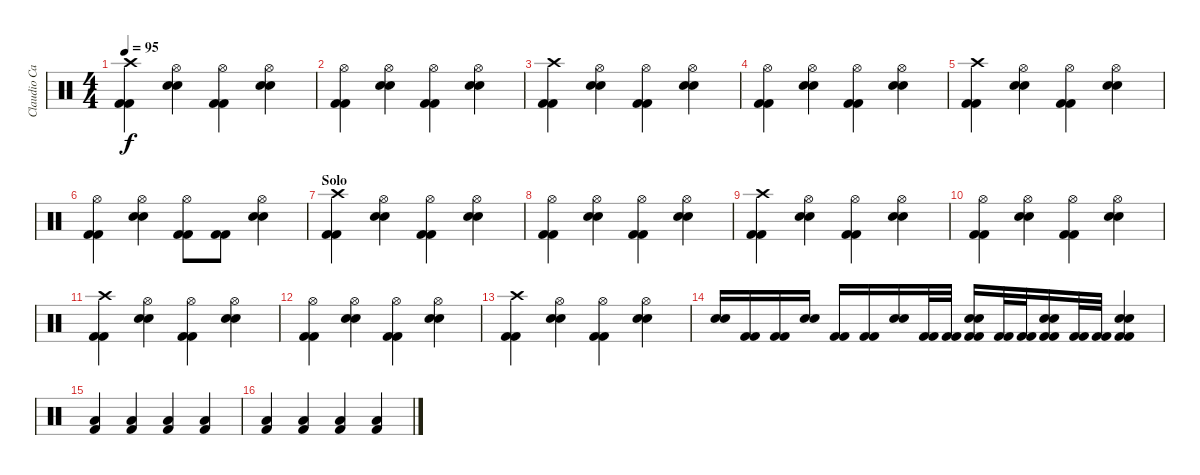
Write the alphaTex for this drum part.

\track ("Claudio Cardaci (bateria)" "Claudio Ca") {instrument percussion}
\staff {score}
\articulation defaults
\ts (4 4)
\tempo 95
\clef neutral
\ks c
("Crash high (hit)" "Kick (hit) 2" "Kick (hit) 2").4{dy f} ("Hi-Hat (open)" "Snare (hit) 2" "Snare (hit) 2").4 ("Hi-Hat (open)" "Kick (hit) 2" "Kick (hit) 2").4 ("Hi-Hat (open)" "Snare (hit) 2" "Snare (hit) 2").4 |
("Hi-Hat (open)" "Kick (hit) 2" "Kick (hit) 2").4 ("Hi-Hat (open)" "Snare (hit) 2" "Snare (hit) 2").4 ("Hi-Hat (open)" "Kick (hit) 2" "Kick (hit) 2").4 ("Hi-Hat (open)" "Snare (hit) 2" "Snare (hit) 2").4 |
("Crash high (hit)" "Kick (hit) 2" "Kick (hit) 2").4 ("Hi-Hat (open)" "Snare (hit) 2" "Snare (hit) 2").4 ("Hi-Hat (open)" "Kick (hit) 2" "Kick (hit) 2").4 ("Hi-Hat (open)" "Snare (hit) 2" "Snare (hit) 2").4 |
("Hi-Hat (open)" "Kick (hit) 2" "Kick (hit) 2").4 ("Hi-Hat (open)" "Snare (hit) 2" "Snare (hit) 2").4 ("Hi-Hat (open)" "Kick (hit) 2" "Kick (hit) 2").4 ("Hi-Hat (open)" "Snare (hit) 2" "Snare (hit) 2").4 |
("Crash high (hit)" "Kick (hit) 2" "Kick (hit) 2").4 ("Hi-Hat (open)" "Snare (hit) 2" "Snare (hit) 2").4 ("Hi-Hat (open)" "Kick (hit) 2" "Kick (hit) 2").4 ("Hi-Hat (open)" "Snare (hit) 2" "Snare (hit) 2").4 |
("Hi-Hat (open)" "Kick (hit) 2" "Kick (hit) 2").4 ("Hi-Hat (open)" "Snare (hit) 2" "Snare (hit) 2").4 ("Hi-Hat (open)" "Kick (hit) 2" "Kick (hit) 2").8 ("Kick (hit) 2" "Kick (hit) 2").8 ("Hi-Hat (open)" "Snare (hit) 2" "Snare (hit) 2").4 |
\section ("" "Solo")
("Crash high (hit)" "Kick (hit) 2" "Kick (hit) 2").4 ("Hi-Hat (open)" "Snare (hit) 2" "Snare (hit) 2").4 ("Hi-Hat (open)" "Kick (hit) 2" "Kick (hit) 2").4 ("Hi-Hat (open)" "Snare (hit) 2" "Snare (hit) 2").4 |
("Hi-Hat (open)" "Kick (hit) 2" "Kick (hit) 2").4 ("Hi-Hat (open)" "Snare (hit) 2" "Snare (hit) 2").4 ("Hi-Hat (open)" "Kick (hit) 2" "Kick (hit) 2").4 ("Hi-Hat (open)" "Snare (hit) 2" "Snare (hit) 2").4 |
("Crash high (hit)" "Kick (hit) 2" "Kick (hit) 2").4 ("Hi-Hat (open)" "Snare (hit) 2" "Snare (hit) 2").4 ("Hi-Hat (open)" "Kick (hit) 2" "Kick (hit) 2").4 ("Hi-Hat (open)" "Snare (hit) 2" "Snare (hit) 2").4 |
("Hi-Hat (open)" "Kick (hit) 2" "Kick (hit) 2").4 ("Hi-Hat (open)" "Snare (hit) 2" "Snare (hit) 2").4 ("Hi-Hat (open)" "Kick (hit) 2" "Kick (hit) 2").4 ("Hi-Hat (open)" "Snare (hit) 2" "Snare (hit) 2").4 |
("Crash high (hit)" "Kick (hit) 2" "Kick (hit) 2").4 ("Hi-Hat (open)" "Snare (hit) 2" "Snare (hit) 2").4 ("Hi-Hat (open)" "Kick (hit) 2" "Kick (hit) 2").4 ("Hi-Hat (open)" "Snare (hit) 2" "Snare (hit) 2").4 |
("Hi-Hat (open)" "Kick (hit) 2" "Kick (hit) 2").4 ("Hi-Hat (open)" "Snare (hit) 2" "Snare (hit) 2").4 ("Hi-Hat (open)" "Kick (hit) 2" "Kick (hit) 2").4 ("Hi-Hat (open)" "Snare (hit) 2" "Snare (hit) 2").4 |
("Crash high (hit)" "Kick (hit) 2" "Kick (hit) 2").4 ("Hi-Hat (open)" "Snare (hit) 2" "Snare (hit) 2").4 ("Hi-Hat (open)" "Kick (hit) 2" "Kick (hit) 2").4 ("Hi-Hat (open)" "Snare (hit) 2" "Snare (hit) 2").4 |
("Electric Snare (hit)" "Snare (hit) 2").16 ("Kick (hit) 2" "Kick (hit) 2").16 ("Kick (hit) 2" "Kick (hit) 2").16 ("Snare (hit) 2" "Snare (hit) 2").16 ("Kick (hit) 2" "Kick (hit) 2").16 ("Kick (hit) 2" "Kick (hit) 2").16 ("Snare (hit) 2" "Snare (hit) 2").16 ("Kick (hit) 2" "Kick (hit) 2").32 ("Kick (hit) 2" "Kick (hit) 2").32 ("Snare (hit) 2" "Snare (hit) 2" "Kick (hit) 2" "Kick (hit) 2").16 ("Kick (hit) 2" "Kick (hit) 2").32 ("Kick (hit) 2" "Kick (hit) 2").32 ("Snare (hit) 2" "Snare (hit) 2" "Kick (hit) 2" "Kick (hit) 2").16 ("Kick (hit) 2" "Kick (hit) 2").32 ("Kick (hit) 2" "Kick (hit) 2").32 ("Snare (hit) 2" "Snare (hit) 2" "Kick (hit) 2" "Kick (hit) 2").4 |
("Kick (hit) 2" "Low Tom (hit)").4 ("Kick (hit) 2" "Low Tom (hit)").4 ("Kick (hit) 2" "Low Tom (hit)").4 ("Kick (hit) 2" "Low Tom (hit)").4 |
("Kick (hit) 2" "Low Tom (hit)").4 ("Kick (hit) 2" "Low Tom (hit)").4 ("Kick (hit) 2" "Low Tom (hit)").4 ("Kick (hit) 2" "Low Tom (hit)").4
